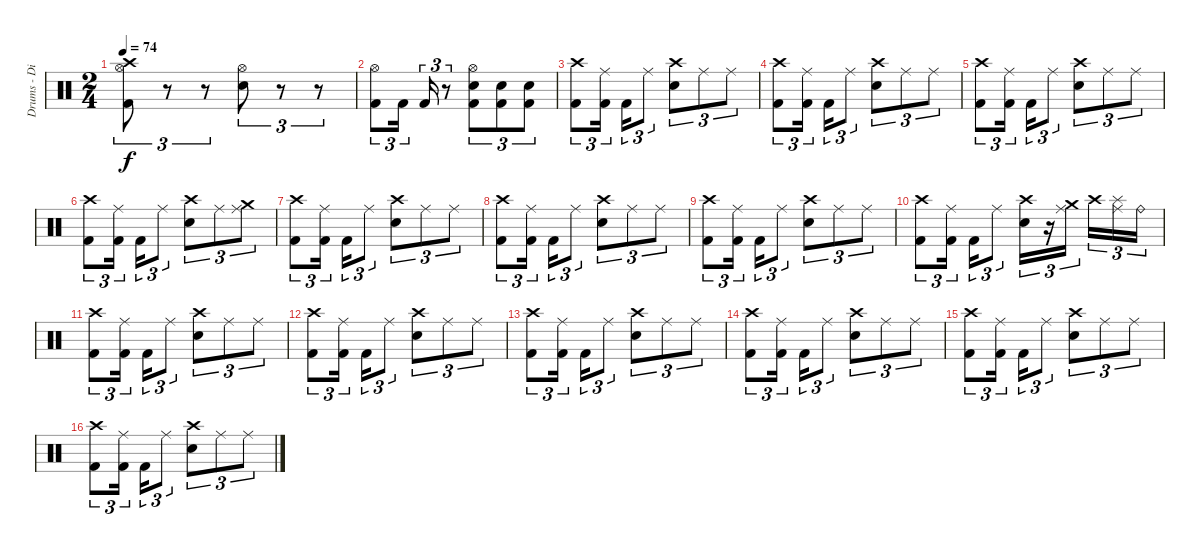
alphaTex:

\track ("Drums - Dino Campanella" "Drums - Di") {instrument percussion}
\staff {score}
\articulation defaults
\ts (2 4)
\tempo 74
\clef neutral
\ks c
("Crash high (hit)" "Hi-Hat (open)" "Kick (hit) 2").8{tu (3 2) dy f} r.8{tu (3 2)} r.8{tu (3 2)} ("Hi-Hat (open)" "Snare (hit) 2").8{tu (3 2)} r.8{tu (3 2)} r.8{tu (3 2)} |
("Hi-Hat (open)" "Kick (hit) 2").8{tu (3 2)} "Kick (hit) 2".16{tu (3 2)} "Kick (hit) 2".16{tu (3 2)} r.8{tu (3 2)} ("Hi-Hat (open)" "Kick (hit) 2" "Snare (hit) 2").8{tu (3 2)} ("Snare (hit) 2" "Kick (hit) 2").8{tu (3 2)} ("Kick (hit) 2" "Snare (hit) 2").8{tu (3 2)} |
("Crash high (hit)" "Kick (hit) 2").8{tu (3 2)} ("Ride (middle)" "Kick (hit) 2").16{tu (3 2)} "Kick (hit) 2".16{tu (3 2)} "Ride (middle)".8{tu (3 2)} ("Crash high (hit)" "Snare (hit) 2").8{tu (3 2)} "Ride (middle)".8{tu (3 2)} "Ride (middle)".8{tu (3 2)} |
("Crash high (hit)" "Kick (hit) 2").8{tu (3 2)} ("Ride (middle)" "Kick (hit) 2").16{tu (3 2)} "Kick (hit) 2".16{tu (3 2)} "Ride (middle)".8{tu (3 2)} ("Crash high (hit)" "Snare (hit) 2").8{tu (3 2)} "Ride (middle)".8{tu (3 2)} "Ride (middle)".8{tu (3 2)} |
("Crash high (hit)" "Kick (hit) 2").8{tu (3 2)} ("Ride (middle)" "Kick (hit) 2").16{tu (3 2)} "Kick (hit) 2".16{tu (3 2)} "Ride (middle)".8{tu (3 2)} ("Crash high (hit)" "Snare (hit) 2").8{tu (3 2)} "Ride (middle)".8{tu (3 2)} "Ride (middle)".8{tu (3 2)} |
("Crash high (hit)" "Kick (hit) 2").8{tu (3 2)} ("Ride (middle)" "Kick (hit) 2").16{tu (3 2)} "Kick (hit) 2".16{tu (3 2)} "Ride (middle)".8{tu (3 2)} ("Crash high (hit)" "Snare (hit) 2").8{tu (3 2)} "Ride (middle)".8{tu (3 2)} ("Ride (middle)" "Crash medium (hit)").8{tu (3 2)} |
("Crash high (hit)" "Kick (hit) 2").8{tu (3 2)} ("Ride (middle)" "Kick (hit) 2").16{tu (3 2)} "Kick (hit) 2".16{tu (3 2)} "Ride (middle)".8{tu (3 2)} ("Crash high (hit)" "Snare (hit) 2").8{tu (3 2)} "Ride (middle)".8{tu (3 2)} "Ride (middle)".8{tu (3 2)} |
("Crash high (hit)" "Kick (hit) 2").8{tu (3 2)} ("Ride (middle)" "Kick (hit) 2").16{tu (3 2)} "Kick (hit) 2".16{tu (3 2)} "Ride (middle)".8{tu (3 2)} ("Crash high (hit)" "Snare (hit) 2").8{tu (3 2)} "Ride (middle)".8{tu (3 2)} "Ride (middle)".8{tu (3 2)} |
("Crash high (hit)" "Kick (hit) 2").8{tu (3 2)} ("Ride (middle)" "Kick (hit) 2").16{tu (3 2)} "Kick (hit) 2".16{tu (3 2)} "Ride (middle)".8{tu (3 2)} ("Crash high (hit)" "Snare (hit) 2").8{tu (3 2)} "Ride (middle)".8{tu (3 2)} "Ride (middle)".8{tu (3 2)} |
("Crash high (hit)" "Kick (hit) 2").8{tu (3 2)} ("Ride (middle)" "Kick (hit) 2").16{tu (3 2)} "Kick (hit) 2".16{tu (3 2)} "Ride (middle)".8{tu (3 2)} ("Crash high (hit)" "Snare (hit) 2").16{tu (3 2)} r.16{tu (3 2)} ("Ride (middle)" "Crash medium (hit)").16{tu (3 2)} "Crash high (hit)".16{tu (3 2)} ("Ride (middle)" "Splash (hit)").16{tu (3 2)} "Ride (bell)".16{tu (3 2)} |
("Crash high (hit)" "Kick (hit) 2").8{tu (3 2)} ("Ride (middle)" "Kick (hit) 2").16{tu (3 2)} "Kick (hit) 2".16{tu (3 2)} "Ride (middle)".8{tu (3 2)} ("Crash high (hit)" "Snare (hit) 2").8{tu (3 2)} "Ride (middle)".8{tu (3 2)} "Ride (middle)".8{tu (3 2)} |
("Crash high (hit)" "Kick (hit) 2").8{tu (3 2)} ("Ride (middle)" "Kick (hit) 2").16{tu (3 2)} "Kick (hit) 2".16{tu (3 2)} "Ride (middle)".8{tu (3 2)} ("Crash high (hit)" "Snare (hit) 2").8{tu (3 2)} "Ride (middle)".8{tu (3 2)} "Ride (middle)".8{tu (3 2)} |
("Crash high (hit)" "Kick (hit) 2").8{tu (3 2)} ("Ride (middle)" "Kick (hit) 2").16{tu (3 2)} "Kick (hit) 2".16{tu (3 2)} "Ride (middle)".8{tu (3 2)} ("Crash high (hit)" "Snare (hit) 2").8{tu (3 2)} "Ride (middle)".8{tu (3 2)} "Ride (middle)".8{tu (3 2)} |
("Crash high (hit)" "Kick (hit) 2").8{tu (3 2)} ("Ride (middle)" "Kick (hit) 2").16{tu (3 2)} "Kick (hit) 2".16{tu (3 2)} "Ride (middle)".8{tu (3 2)} ("Crash high (hit)" "Snare (hit) 2").8{tu (3 2)} "Ride (middle)".8{tu (3 2)} "Ride (middle)".8{tu (3 2)} |
("Crash high (hit)" "Kick (hit) 2").8{tu (3 2)} ("Ride (middle)" "Kick (hit) 2").16{tu (3 2)} "Kick (hit) 2".16{tu (3 2)} "Ride (middle)".8{tu (3 2)} ("Crash high (hit)" "Snare (hit) 2").8{tu (3 2)} "Ride (middle)".8{tu (3 2)} "Ride (middle)".8{tu (3 2)} |
("Crash high (hit)" "Kick (hit) 2").8{tu (3 2)} ("Ride (middle)" "Kick (hit) 2").16{tu (3 2)} "Kick (hit) 2".16{tu (3 2)} "Ride (middle)".8{tu (3 2)} ("Crash high (hit)" "Snare (hit) 2").8{tu (3 2)} "Ride (middle)".8{tu (3 2)} "Ride (middle)".8{tu (3 2)}
